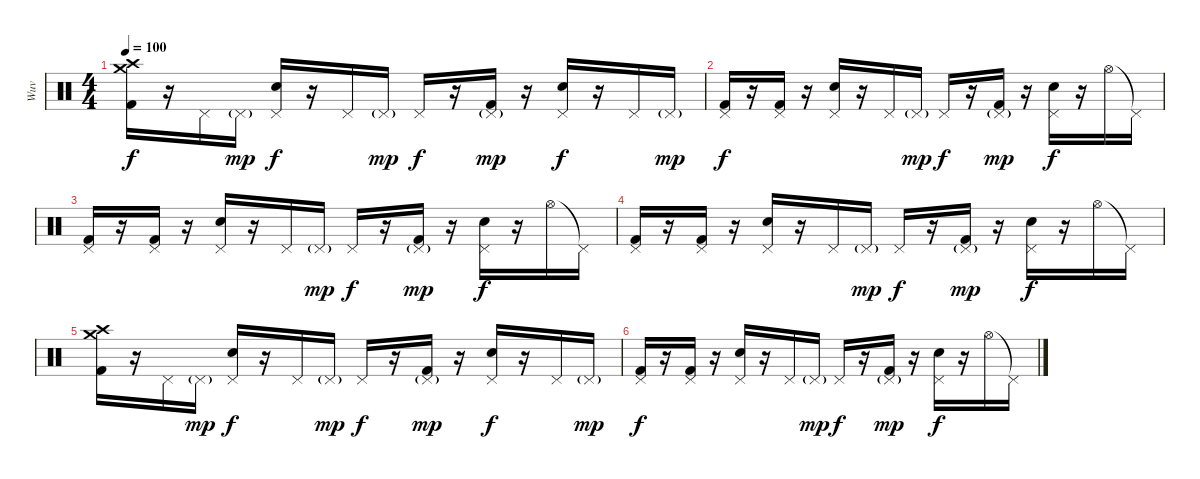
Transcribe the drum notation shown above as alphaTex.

\track ("Wuv" "Wuv") {instrument percussion}
\staff {score}
\articulation defaults
\ts (4 4)
\tempo 100
\clef neutral
\ks c
("Crash high (hit)" "Crash medium (hit)" "Kick (hit) 2").16{dy f} r.16 "Pedal Hi-Hat (hit)".16 "Pedal Hi-Hat (hit)"{g}.16{dy mp} ("Pedal Hi-Hat (hit)" "Electric Snare (hit)").16{dy f} r.16 "Pedal Hi-Hat (hit)".16 "Pedal Hi-Hat (hit)"{g}.16{dy mp} "Pedal Hi-Hat (hit)".16{dy f} r.16 ("Pedal Hi-Hat (hit)"{g} "Kick (hit) 2").16{dy mp} r.16 ("Pedal Hi-Hat (hit)" "Electric Snare (hit)").16{dy f} r.16 "Pedal Hi-Hat (hit)".16 "Pedal Hi-Hat (hit)"{g}.16{dy mp} |
("Pedal Hi-Hat (hit)" "Kick (hit) 2").16{dy f} r.16 ("Pedal Hi-Hat (hit)" "Kick (hit) 2").16 r.16 ("Pedal Hi-Hat (hit)" "Electric Snare (hit)").16 r.16 "Pedal Hi-Hat (hit)".16 "Pedal Hi-Hat (hit)"{g}.16{dy mp} "Pedal Hi-Hat (hit)".16{dy f} r.16 ("Pedal Hi-Hat (hit)"{g} "Kick (hit) 2").16{dy mp} r.16 ("Pedal Hi-Hat (hit)" "Electric Snare (hit)").16{dy f} r.16 "Hi-Hat (open)".16 "Pedal Hi-Hat (hit)"{t}.16 |
("Pedal Hi-Hat (hit)" "Kick (hit) 2").16 r.16 ("Pedal Hi-Hat (hit)" "Kick (hit) 2").16 r.16 ("Pedal Hi-Hat (hit)" "Electric Snare (hit)").16 r.16 "Pedal Hi-Hat (hit)".16 "Pedal Hi-Hat (hit)"{g}.16{dy mp} "Pedal Hi-Hat (hit)".16{dy f} r.16 ("Pedal Hi-Hat (hit)"{g} "Kick (hit) 2").16{dy mp} r.16 ("Pedal Hi-Hat (hit)" "Electric Snare (hit)").16{dy f} r.16 "Hi-Hat (open)".16 "Pedal Hi-Hat (hit)"{t}.16 |
("Pedal Hi-Hat (hit)" "Kick (hit) 2").16 r.16 ("Pedal Hi-Hat (hit)" "Kick (hit) 2").16 r.16 ("Pedal Hi-Hat (hit)" "Electric Snare (hit)").16 r.16 "Pedal Hi-Hat (hit)".16 "Pedal Hi-Hat (hit)"{g}.16{dy mp} "Pedal Hi-Hat (hit)".16{dy f} r.16 ("Pedal Hi-Hat (hit)"{g} "Kick (hit) 2").16{dy mp} r.16 ("Pedal Hi-Hat (hit)" "Electric Snare (hit)").16{dy f} r.16 "Hi-Hat (open)".16 "Pedal Hi-Hat (hit)"{t}.16 |
("Crash high (hit)" "Crash medium (hit)" "Kick (hit) 2").16{volume 0} r.16 "Pedal Hi-Hat (hit)".16 "Pedal Hi-Hat (hit)"{g}.16{dy mp} ("Pedal Hi-Hat (hit)" "Electric Snare (hit)").16{dy f} r.16 "Pedal Hi-Hat (hit)".16 "Pedal Hi-Hat (hit)"{g}.16{dy mp} "Pedal Hi-Hat (hit)".16{dy f} r.16 ("Pedal Hi-Hat (hit)"{g} "Kick (hit) 2").16{dy mp} r.16 ("Pedal Hi-Hat (hit)" "Electric Snare (hit)").16{dy f} r.16 "Pedal Hi-Hat (hit)".16 "Pedal Hi-Hat (hit)"{g}.16{dy mp} |
("Pedal Hi-Hat (hit)" "Kick (hit) 2").16{dy f} r.16 ("Pedal Hi-Hat (hit)" "Kick (hit) 2").16 r.16 ("Pedal Hi-Hat (hit)" "Electric Snare (hit)").16 r.16 "Pedal Hi-Hat (hit)".16 "Pedal Hi-Hat (hit)"{g}.16{dy mp} "Pedal Hi-Hat (hit)".16{dy f} r.16 ("Pedal Hi-Hat (hit)"{g} "Kick (hit) 2").16{dy mp} r.16 ("Pedal Hi-Hat (hit)" "Electric Snare (hit)").16{dy f} r.16 "Hi-Hat (open)".16 "Pedal Hi-Hat (hit)"{t}.16
